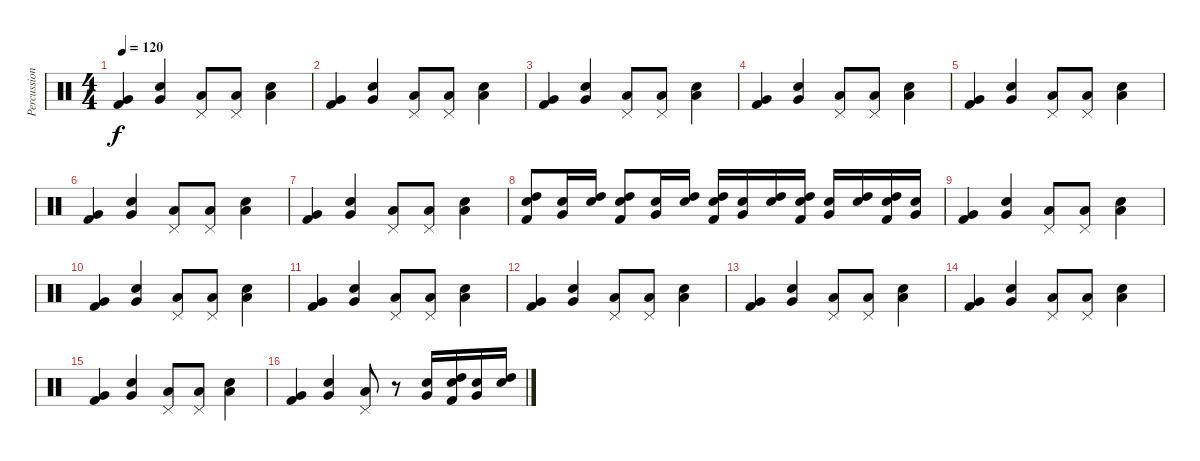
\track ("Percussion" "Percussion") {instrument percussion}
\staff {score}
\articulation defaults
\ts (4 4)
\tempo 120
\clef neutral
\ks c
("Very Low Tom (hit)" "Kick (hit) 2").4{dy f} ("Very Low Tom (hit)" "Snare (hit) 2").4 ("Pedal Hi-Hat (hit)" "Low Tom (hit)").8 ("Pedal Hi-Hat (hit)" "Low Tom (hit)").8 ("Low Tom (hit)" "Snare (hit) 2").4 |
("Very Low Tom (hit)" "Kick (hit) 2").4 ("Very Low Tom (hit)" "Snare (hit) 2").4 ("Pedal Hi-Hat (hit)" "Low Tom (hit)").8 ("Pedal Hi-Hat (hit)" "Low Tom (hit)").8 ("Low Tom (hit)" "Snare (hit) 2").4 |
("Very Low Tom (hit)" "Kick (hit) 2").4 ("Very Low Tom (hit)" "Snare (hit) 2").4 ("Pedal Hi-Hat (hit)" "Low Tom (hit)").8 ("Pedal Hi-Hat (hit)" "Low Tom (hit)").8 ("Low Tom (hit)" "Snare (hit) 2").4 |
("Very Low Tom (hit)" "Kick (hit) 2").4 ("Very Low Tom (hit)" "Snare (hit) 2").4 ("Pedal Hi-Hat (hit)" "Low Tom (hit)").8 ("Pedal Hi-Hat (hit)" "Low Tom (hit)").8 ("Low Tom (hit)" "Snare (hit) 2").4 |
("Very Low Tom (hit)" "Kick (hit) 2").4 ("Very Low Tom (hit)" "Snare (hit) 2").4 ("Pedal Hi-Hat (hit)" "Low Tom (hit)").8 ("Pedal Hi-Hat (hit)" "Low Tom (hit)").8 ("Low Tom (hit)" "Snare (hit) 2").4 |
("Very Low Tom (hit)" "Kick (hit) 2").4 ("Very Low Tom (hit)" "Snare (hit) 2").4 ("Pedal Hi-Hat (hit)" "Low Tom (hit)").8 ("Pedal Hi-Hat (hit)" "Low Tom (hit)").8 ("Low Tom (hit)" "Snare (hit) 2").4 |
("Very Low Tom (hit)" "Kick (hit) 2").4 ("Very Low Tom (hit)" "Snare (hit) 2").4 ("Pedal Hi-Hat (hit)" "Low Tom (hit)").8 ("Pedal Hi-Hat (hit)" "Low Tom (hit)").8 ("Low Tom (hit)" "Snare (hit) 2").4 |
("High Tom (hit)" "Snare (hit) 2" "Kick (hit) 2").8 ("Very Low Tom (hit)" "Snare (hit) 2").16 ("High Tom (hit)" "Snare (hit) 2").16 ("High Tom (hit)" "Snare (hit) 2" "Kick (hit) 2").8 ("Very Low Tom (hit)" "Snare (hit) 2").16 ("High Tom (hit)" "Snare (hit) 2").16 ("High Tom (hit)" "Snare (hit) 2" "Kick (hit) 2").16 ("Very Low Tom (hit)" "Snare (hit) 2").16 ("High Tom (hit)" "Snare (hit) 2").16 ("High Tom (hit)" "Snare (hit) 2" "Kick (hit) 2").16 ("Very Low Tom (hit)" "Snare (hit) 2").16 ("High Tom (hit)" "Snare (hit) 2").16 ("High Tom (hit)" "Snare (hit) 2" "Kick (hit) 2").16 ("Very Low Tom (hit)" "Snare (hit) 2").16 |
("Very Low Tom (hit)" "Kick (hit) 2").4 ("Very Low Tom (hit)" "Snare (hit) 2").4 ("Pedal Hi-Hat (hit)" "Low Tom (hit)").8 ("Pedal Hi-Hat (hit)" "Low Tom (hit)").8 ("Low Tom (hit)" "Snare (hit) 2").4 |
("Very Low Tom (hit)" "Kick (hit) 2").4 ("Very Low Tom (hit)" "Snare (hit) 2").4 ("Pedal Hi-Hat (hit)" "Low Tom (hit)").8 ("Pedal Hi-Hat (hit)" "Low Tom (hit)").8 ("Low Tom (hit)" "Snare (hit) 2").4 |
("Very Low Tom (hit)" "Kick (hit) 2").4 ("Very Low Tom (hit)" "Snare (hit) 2").4 ("Pedal Hi-Hat (hit)" "Low Tom (hit)").8 ("Pedal Hi-Hat (hit)" "Low Tom (hit)").8 ("Low Tom (hit)" "Snare (hit) 2").4 |
("Very Low Tom (hit)" "Kick (hit) 2").4 ("Very Low Tom (hit)" "Snare (hit) 2").4 ("Pedal Hi-Hat (hit)" "Low Tom (hit)").8 ("Pedal Hi-Hat (hit)" "Low Tom (hit)").8 ("Low Tom (hit)" "Snare (hit) 2").4 |
("Very Low Tom (hit)" "Kick (hit) 2").4 ("Very Low Tom (hit)" "Snare (hit) 2").4 ("Pedal Hi-Hat (hit)" "Low Tom (hit)").8 ("Pedal Hi-Hat (hit)" "Low Tom (hit)").8 ("Low Tom (hit)" "Snare (hit) 2").4 |
("Very Low Tom (hit)" "Kick (hit) 2").4 ("Very Low Tom (hit)" "Snare (hit) 2").4 ("Pedal Hi-Hat (hit)" "Low Tom (hit)").8 ("Pedal Hi-Hat (hit)" "Low Tom (hit)").8 ("Low Tom (hit)" "Snare (hit) 2").4 |
("Very Low Tom (hit)" "Kick (hit) 2").4 ("Very Low Tom (hit)" "Snare (hit) 2").4 ("Pedal Hi-Hat (hit)" "Low Tom (hit)").8 ("Pedal Hi-Hat (hit)" "Low Tom (hit)").8 ("Low Tom (hit)" "Snare (hit) 2").4 |
("Very Low Tom (hit)" "Kick (hit) 2").4 ("Very Low Tom (hit)" "Snare (hit) 2").4 ("Pedal Hi-Hat (hit)" "Low Tom (hit)").8 r.8 ("Very Low Tom (hit)" "Snare (hit) 2").16 ("High Tom (hit)" "Snare (hit) 2" "Kick (hit) 2").16 ("Very Low Tom (hit)" "Snare (hit) 2").16 ("High Tom (hit)" "Snare (hit) 2").16
